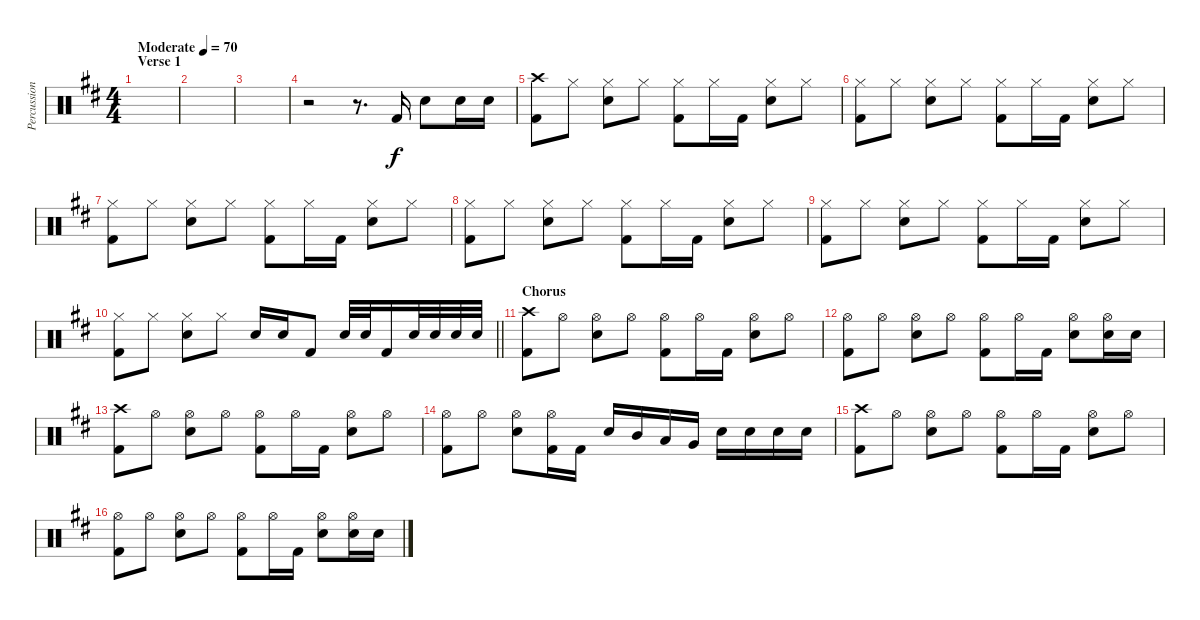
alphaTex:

\track ("Percussion" "Percussion") {instrument percussion}
\staff {score}
\articulation defaults
\ts (4 4)
\section ("" "Verse 1")
\tempo (70 "Moderate")
\clef neutral
\ks d
|
|
|
r.2 r.8{d} "Kick (hit) 2".16 "Snare (hit) 2".8 "Snare (hit) 2".16 "Snare (hit) 2".16 |
("Crash high (hit)" "Kick (hit) 2").8 "Hi-Hat (closed)".8 ("Hi-Hat (closed)" "Snare (hit) 2").8 "Hi-Hat (closed)".8 ("Hi-Hat (closed)" "Kick (hit) 2").8 "Hi-Hat (closed)".16 "Kick (hit) 2".16 ("Hi-Hat (closed)" "Snare (hit) 2").8 "Hi-Hat (closed)".8 |
("Hi-Hat (closed)" "Kick (hit) 2").8 "Hi-Hat (closed)".8 ("Hi-Hat (closed)" "Snare (hit) 2").8 "Hi-Hat (closed)".8 ("Hi-Hat (closed)" "Kick (hit) 2").8 "Hi-Hat (closed)".16 "Kick (hit) 2".16 ("Hi-Hat (closed)" "Snare (hit) 2").8 "Hi-Hat (closed)".8 |
("Hi-Hat (closed)" "Kick (hit) 2").8 "Hi-Hat (closed)".8 ("Hi-Hat (closed)" "Snare (hit) 2").8 "Hi-Hat (closed)".8 ("Hi-Hat (closed)" "Kick (hit) 2").8 "Hi-Hat (closed)".16 "Kick (hit) 2".16 ("Hi-Hat (closed)" "Snare (hit) 2").8 "Hi-Hat (closed)".8 |
("Hi-Hat (closed)" "Kick (hit) 2").8 "Hi-Hat (closed)".8 ("Hi-Hat (closed)" "Snare (hit) 2").8 "Hi-Hat (closed)".8 ("Hi-Hat (closed)" "Kick (hit) 2").8 "Hi-Hat (closed)".16 "Kick (hit) 2".16 ("Hi-Hat (closed)" "Snare (hit) 2").8 "Hi-Hat (closed)".8 |
("Hi-Hat (closed)" "Kick (hit) 2").8 "Hi-Hat (closed)".8 ("Hi-Hat (closed)" "Snare (hit) 2").8 "Hi-Hat (closed)".8 ("Hi-Hat (closed)" "Kick (hit) 2").8 "Hi-Hat (closed)".16 "Kick (hit) 2".16 ("Hi-Hat (closed)" "Snare (hit) 2").8 "Hi-Hat (closed)".8 |
\barLineRight lightlight
("Hi-Hat (closed)" "Kick (hit) 2").8 "Hi-Hat (closed)".8 ("Hi-Hat (closed)" "Snare (hit) 2").8 "Hi-Hat (closed)".8 "Snare (hit) 2".16 "Snare (hit) 2".16 "Kick (hit) 2".8 "Snare (hit) 2".32 "Snare (hit) 2".32 "Kick (hit) 2".16 "Snare (hit) 2".32 "Snare (hit) 2".32 "Snare (hit) 2".32 "Snare (hit) 2".32 |
\section ("" "Chorus")
("Crash high (hit)" "Kick (hit) 2").8 "Hi-Hat (open)".8 ("Hi-Hat (open)" "Snare (hit) 2").8 "Hi-Hat (open)".8 ("Hi-Hat (open)" "Kick (hit) 2").8 "Hi-Hat (open)".16 "Kick (hit) 2".16 ("Hi-Hat (open)" "Snare (hit) 2").8 "Hi-Hat (open)".8 |
("Hi-Hat (open)" "Kick (hit) 2").8 "Hi-Hat (open)".8 ("Hi-Hat (open)" "Snare (hit) 2").8 "Hi-Hat (open)".8 ("Hi-Hat (open)" "Kick (hit) 2").8 "Hi-Hat (open)".16 "Kick (hit) 2".16 ("Hi-Hat (open)" "Snare (hit) 2").8 ("Hi-Hat (open)" "Snare (hit) 2").16 "Snare (hit) 2".16 |
("Crash high (hit)" "Kick (hit) 2").8 "Hi-Hat (open)".8 ("Hi-Hat (open)" "Snare (hit) 2").8 "Hi-Hat (open)".8 ("Hi-Hat (open)" "Kick (hit) 2").8 "Hi-Hat (open)".16 "Kick (hit) 2".16 ("Hi-Hat (open)" "Snare (hit) 2").8 "Hi-Hat (open)".8 |
("Hi-Hat (open)" "Kick (hit) 2").8 "Hi-Hat (open)".8 ("Hi-Hat (open)" "Snare (hit) 2").8 ("Hi-Hat (open)" "Kick (hit) 2").16 "Kick (hit) 2".16 "Snare (hit) 2".16 "Mid Tom (hit)".16 "Low Tom (hit)".16 "Very Low Tom (hit)".16 "Snare (hit) 2".16 "Snare (hit) 2".16 "Snare (hit) 2".16 "Snare (hit) 2".16 |
("Crash high (hit)" "Kick (hit) 2").8 "Hi-Hat (open)".8 ("Hi-Hat (open)" "Snare (hit) 2").8 "Hi-Hat (open)".8 ("Hi-Hat (open)" "Kick (hit) 2").8 "Hi-Hat (open)".16 "Kick (hit) 2".16 ("Hi-Hat (open)" "Snare (hit) 2").8 "Hi-Hat (open)".8 |
("Hi-Hat (open)" "Kick (hit) 2").8 "Hi-Hat (open)".8 ("Hi-Hat (open)" "Snare (hit) 2").8 "Hi-Hat (open)".8 ("Hi-Hat (open)" "Kick (hit) 2").8 "Hi-Hat (open)".16 "Kick (hit) 2".16 ("Hi-Hat (open)" "Snare (hit) 2").8 ("Hi-Hat (open)" "Snare (hit) 2").16 "Snare (hit) 2".16
